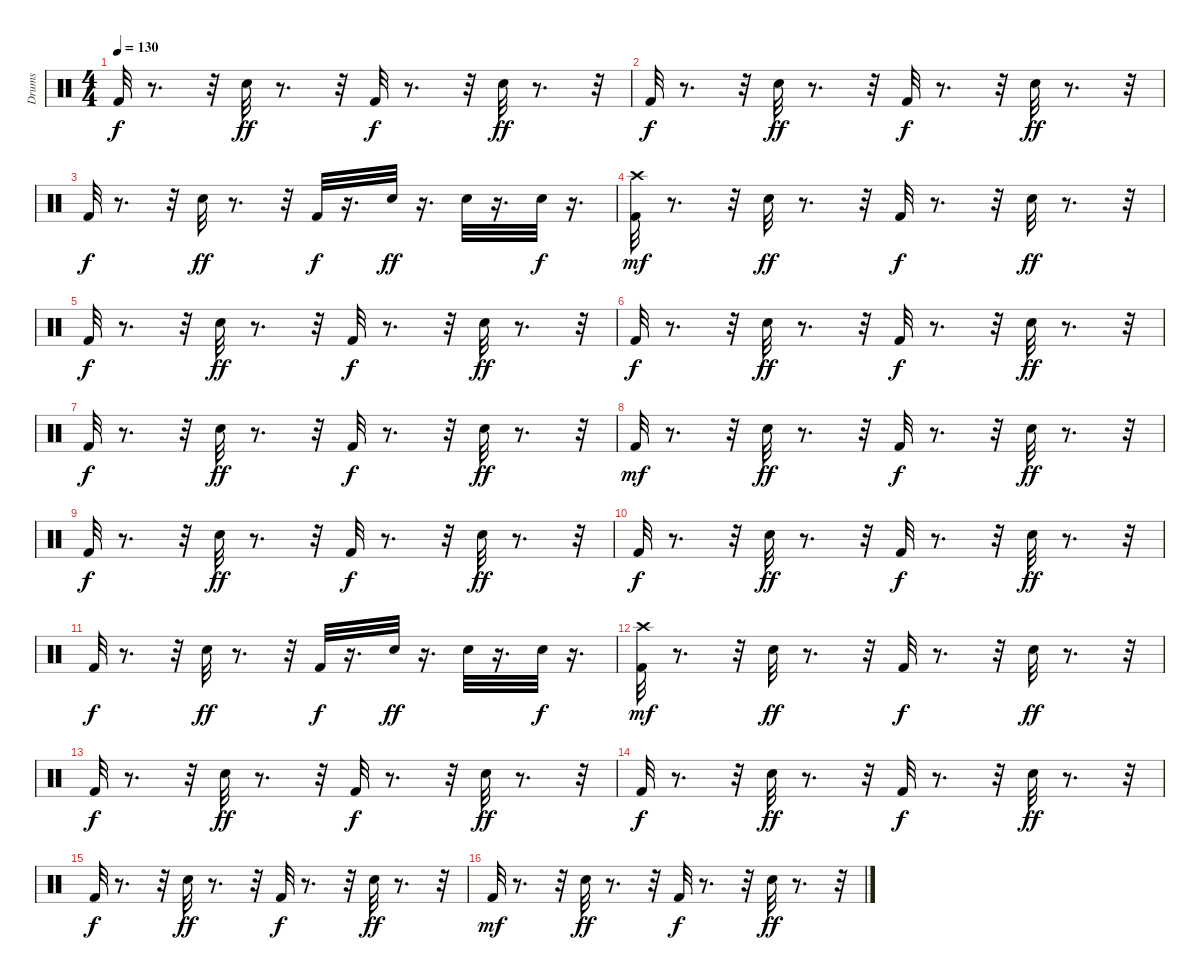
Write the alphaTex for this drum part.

\track ("Drums" "Drums") {instrument percussion}
\staff {score}
\articulation defaults
\ts (4 4)
\tempo 130
\clef neutral
\ks c "Kick (hit) 2".32{dy f}
r.8{d} r.32 "Snare (hit) 2".32{dy ff} r.8{d} r.32 "Kick (hit) 2".32{dy f} r.8{d} r.32 "Snare (hit) 2".32{dy ff} r.8{d} r.32 |
"Kick (hit) 2".32{dy f} r.8{d} r.32 "Snare (hit) 2".32{dy ff} r.8{d} r.32 "Kick (hit) 2".32{dy f} r.8{d} r.32 "Snare (hit) 2".32{dy ff} r.8{d} r.32 |
"Kick (hit) 2".32{dy f} r.8{d} r.32 "Snare (hit) 2".32{dy ff} r.8{d} r.32 "Kick (hit) 2".32{dy f} r.16{d} "Snare (hit) 2".32{dy ff} r.16{d} "Snare (hit) 2".32 r.16{d} "Snare (hit) 2".32{dy f} r.16{d} |
("Crash high (hit)" "Kick (hit) 2").32{dy mf} r.8{d} r.32 "Snare (hit) 2".32{dy ff} r.8{d} r.32 "Kick (hit) 2".32{dy f} r.8{d} r.32 "Snare (hit) 2".32{dy ff} r.8{d} r.32 |
"Kick (hit) 2".32{dy f} r.8{d} r.32 "Snare (hit) 2".32{dy ff} r.8{d} r.32 "Kick (hit) 2".32{dy f} r.8{d} r.32 "Snare (hit) 2".32{dy ff} r.8{d} r.32 |
"Kick (hit) 2".32{dy f} r.8{d} r.32 "Snare (hit) 2".32{dy ff} r.8{d} r.32 "Kick (hit) 2".32{dy f} r.8{d} r.32 "Snare (hit) 2".32{dy ff} r.8{d} r.32 |
"Kick (hit) 2".32{dy f} r.8{d} r.32 "Snare (hit) 2".32{dy ff} r.8{d} r.32 "Kick (hit) 2".32{dy f} r.8{d} r.32 "Snare (hit) 2".32{dy ff} r.8{d} r.32 |
"Kick (hit) 2".32{dy mf} r.8{d} r.32 "Snare (hit) 2".32{dy ff} r.8{d} r.32 "Kick (hit) 2".32{dy f} r.8{d} r.32 "Snare (hit) 2".32{dy ff} r.8{d} r.32 |
"Kick (hit) 2".32{dy f} r.8{d} r.32 "Snare (hit) 2".32{dy ff} r.8{d} r.32 "Kick (hit) 2".32{dy f} r.8{d} r.32 "Snare (hit) 2".32{dy ff} r.8{d} r.32 |
"Kick (hit) 2".32{dy f} r.8{d} r.32 "Snare (hit) 2".32{dy ff} r.8{d} r.32 "Kick (hit) 2".32{dy f} r.8{d} r.32 "Snare (hit) 2".32{dy ff} r.8{d} r.32 |
"Kick (hit) 2".32{dy f} r.8{d} r.32 "Snare (hit) 2".32{dy ff} r.8{d} r.32 "Kick (hit) 2".32{dy f} r.16{d} "Snare (hit) 2".32{dy ff} r.16{d} "Snare (hit) 2".32 r.16{d} "Snare (hit) 2".32{dy f} r.16{d} |
("Crash high (hit)" "Kick (hit) 2").32{dy mf} r.8{d} r.32 "Snare (hit) 2".32{dy ff} r.8{d} r.32 "Kick (hit) 2".32{dy f} r.8{d} r.32 "Snare (hit) 2".32{dy ff} r.8{d} r.32 |
"Kick (hit) 2".32{dy f} r.8{d} r.32 "Snare (hit) 2".32{dy ff} r.8{d} r.32 "Kick (hit) 2".32{dy f} r.8{d} r.32 "Snare (hit) 2".32{dy ff} r.8{d} r.32 |
"Kick (hit) 2".32{dy f} r.8{d} r.32 "Snare (hit) 2".32{dy ff} r.8{d} r.32 "Kick (hit) 2".32{dy f} r.8{d} r.32 "Snare (hit) 2".32{dy ff} r.8{d} r.32 |
"Kick (hit) 2".32{dy f} r.8{d} r.32 "Snare (hit) 2".32{dy ff} r.8{d} r.32 "Kick (hit) 2".32{dy f} r.8{d} r.32 "Snare (hit) 2".32{dy ff} r.8{d} r.32 |
"Kick (hit) 2".32{dy mf} r.8{d} r.32 "Snare (hit) 2".32{dy ff} r.8{d} r.32 "Kick (hit) 2".32{dy f} r.8{d} r.32 "Snare (hit) 2".32{dy ff} r.8{d} r.32
